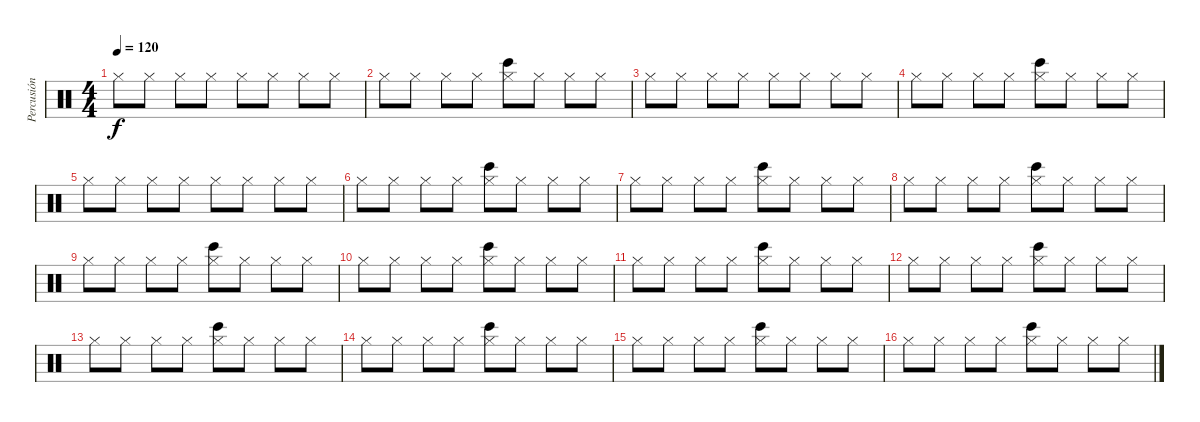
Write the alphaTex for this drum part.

\track ("Percusión" "Percusión") {instrument percussion}
\staff {score}
\articulation defaults
\ts (4 4)
\tempo 120
\clef neutral
\ks c "Hi-Hat (closed)".8{dy f} "Hi-Hat (closed)".8 "Hi-Hat (closed)".8 "Hi-Hat (closed)".8 "Hi-Hat (closed)".8 "Hi-Hat (closed)".8 "Hi-Hat (closed)".8 "Hi-Hat (closed)".8
|
"Hi-Hat (closed)".8 "Hi-Hat (closed)".8 "Hi-Hat (closed)".8 "Hi-Hat (closed)".8 ("Hi-Hat (closed)" "Bongo High (hit)").8 "Hi-Hat (closed)".8 "Hi-Hat (closed)".8 "Hi-Hat (closed)".8 |
"Hi-Hat (closed)".8 "Hi-Hat (closed)".8 "Hi-Hat (closed)".8 "Hi-Hat (closed)".8 "Hi-Hat (closed)".8 "Hi-Hat (closed)".8 "Hi-Hat (closed)".8 "Hi-Hat (closed)".8 |
"Hi-Hat (closed)".8 "Hi-Hat (closed)".8 "Hi-Hat (closed)".8 "Hi-Hat (closed)".8 ("Hi-Hat (closed)" "Bongo High (hit)").8 "Hi-Hat (closed)".8 "Hi-Hat (closed)".8 "Hi-Hat (closed)".8 |
"Hi-Hat (closed)".8 "Hi-Hat (closed)".8 "Hi-Hat (closed)".8 "Hi-Hat (closed)".8 "Hi-Hat (closed)".8 "Hi-Hat (closed)".8 "Hi-Hat (closed)".8 "Hi-Hat (closed)".8 |
"Hi-Hat (closed)".8 "Hi-Hat (closed)".8 "Hi-Hat (closed)".8 "Hi-Hat (closed)".8 ("Hi-Hat (closed)" "Bongo High (hit)").8 "Hi-Hat (closed)".8 "Hi-Hat (closed)".8 "Hi-Hat (closed)".8 |
"Hi-Hat (closed)".8 "Hi-Hat (closed)".8 "Hi-Hat (closed)".8 "Hi-Hat (closed)".8 ("Hi-Hat (closed)" "Bongo High (hit)").8 "Hi-Hat (closed)".8 "Hi-Hat (closed)".8 "Hi-Hat (closed)".8 |
"Hi-Hat (closed)".8 "Hi-Hat (closed)".8 "Hi-Hat (closed)".8 "Hi-Hat (closed)".8 ("Hi-Hat (closed)" "Bongo High (hit)").8 "Hi-Hat (closed)".8 "Hi-Hat (closed)".8 "Hi-Hat (closed)".8 |
"Hi-Hat (closed)".8 "Hi-Hat (closed)".8 "Hi-Hat (closed)".8 "Hi-Hat (closed)".8 ("Hi-Hat (closed)" "Bongo High (hit)").8 "Hi-Hat (closed)".8 "Hi-Hat (closed)".8 "Hi-Hat (closed)".8 |
"Hi-Hat (closed)".8 "Hi-Hat (closed)".8 "Hi-Hat (closed)".8 "Hi-Hat (closed)".8 ("Hi-Hat (closed)" "Bongo High (hit)").8 "Hi-Hat (closed)".8 "Hi-Hat (closed)".8 "Hi-Hat (closed)".8 |
"Hi-Hat (closed)".8 "Hi-Hat (closed)".8 "Hi-Hat (closed)".8 "Hi-Hat (closed)".8 ("Hi-Hat (closed)" "Bongo High (hit)").8 "Hi-Hat (closed)".8 "Hi-Hat (closed)".8 "Hi-Hat (closed)".8 |
"Hi-Hat (closed)".8 "Hi-Hat (closed)".8 "Hi-Hat (closed)".8 "Hi-Hat (closed)".8 ("Hi-Hat (closed)" "Bongo High (hit)").8 "Hi-Hat (closed)".8 "Hi-Hat (closed)".8 "Hi-Hat (closed)".8 |
"Hi-Hat (closed)".8 "Hi-Hat (closed)".8 "Hi-Hat (closed)".8 "Hi-Hat (closed)".8 ("Hi-Hat (closed)" "Bongo High (hit)").8 "Hi-Hat (closed)".8 "Hi-Hat (closed)".8 "Hi-Hat (closed)".8 |
"Hi-Hat (closed)".8 "Hi-Hat (closed)".8 "Hi-Hat (closed)".8 "Hi-Hat (closed)".8 ("Hi-Hat (closed)" "Bongo High (hit)").8 "Hi-Hat (closed)".8 "Hi-Hat (closed)".8 "Hi-Hat (closed)".8 |
"Hi-Hat (closed)".8 "Hi-Hat (closed)".8 "Hi-Hat (closed)".8 "Hi-Hat (closed)".8 ("Hi-Hat (closed)" "Bongo High (hit)").8 "Hi-Hat (closed)".8 "Hi-Hat (closed)".8 "Hi-Hat (closed)".8 |
"Hi-Hat (closed)".8 "Hi-Hat (closed)".8 "Hi-Hat (closed)".8 "Hi-Hat (closed)".8 ("Hi-Hat (closed)" "Bongo High (hit)").8 "Hi-Hat (closed)".8 "Hi-Hat (closed)".8 "Hi-Hat (closed)".8
